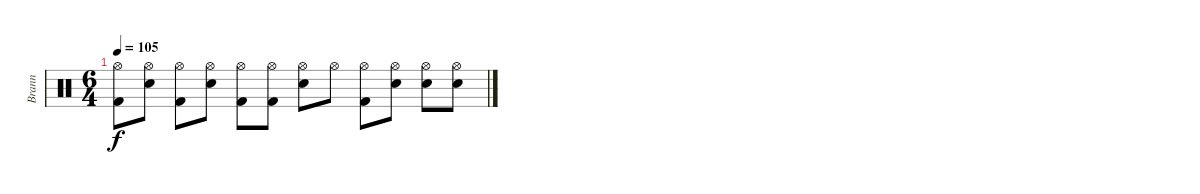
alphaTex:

\track ("Brann" "Brann") {instrument percussion}
\staff {score}
\articulation defaults
\ts (6 4)
\tempo 105
\clef neutral
\ks c
("Hi-Hat (open)" "Kick (hit) 2").8{dy f} ("Hi-Hat (open)" "Snare (hit) 2").8 ("Hi-Hat (open)" "Kick (hit) 2").8 ("Hi-Hat (open)" "Snare (hit) 2").8 ("Hi-Hat (open)" "Kick (hit) 2").8 ("Hi-Hat (open)" "Kick (hit) 2").8 ("Hi-Hat (open)" "Snare (hit) 2").8 "Hi-Hat (open)".8 ("Hi-Hat (open)" "Kick (hit) 2").8 ("Hi-Hat (open)" "Snare (hit) 2").8 ("Hi-Hat (open)" "Snare (hit) 2").8 ("Hi-Hat (open)" "Snare (hit) 2").8
